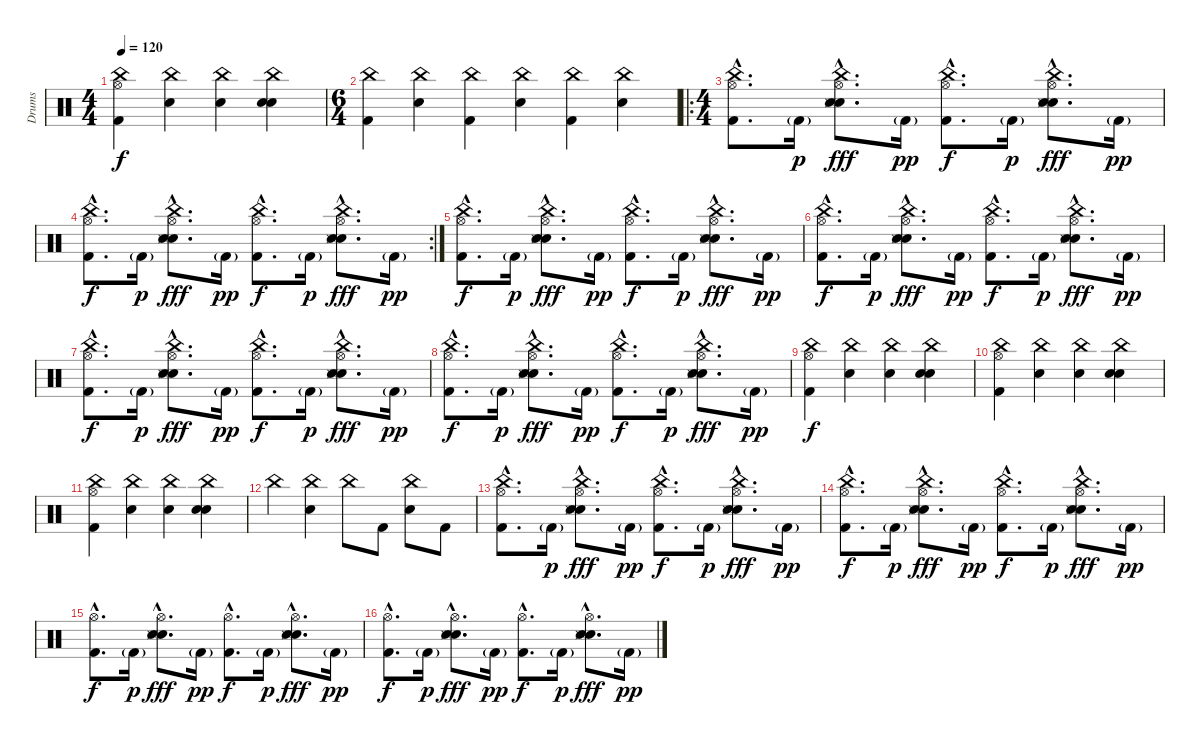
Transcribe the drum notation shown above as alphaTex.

\track ("Drums" "Drums") {instrument percussion}
\staff {score}
\articulation defaults
\ts (4 4)
\tempo 120
\clef neutral
\ks c
("China (hit)" "Kick (hit) 2" "Hi-Hat (open)").4{dy f} ("China (hit)" "Electric Snare (hit)").4 ("China (hit)" "Electric Snare (hit)").4 ("China (hit)" "Electric Snare (hit)" "Hand Clap (hit)").4 |
\ts (6 4)
("China (hit)" "Kick (hit) 2").4 ("China (hit)" "Electric Snare (hit)").4 ("China (hit)" "Kick (hit) 2").4 ("China (hit)" "Electric Snare (hit)").4 ("China (hit)" "Kick (hit) 2").4 ("China (hit)" "Electric Snare (hit)").4 |
\ro
\ts (4 4)
("Kick (hit) 2"{hac} "Hi-Hat (open)"{hac} "China (hit)"{hac}).8{d} "Kick (hit) 2"{g}.16{dy p} ("Hand Clap (hit)"{hac} "Electric Snare (hit)"{hac} "Hi-Hat (open)"{hac} "Snare (side stick) 3"{hac} "China (hit)"{hac}).8{d dy fff} "Kick (hit) 2"{g}.16{dy pp} ("Kick (hit) 2"{hac} "Hi-Hat (open)"{hac} "China (hit)"{hac}).8{d dy f} "Kick (hit) 2"{g}.16{dy p} ("Hand Clap (hit)"{hac} "Electric Snare (hit)"{hac} "Hi-Hat (open)"{hac} "Snare (side stick) 3"{hac} "China (hit)"{hac}).8{d dy fff} "Kick (hit) 2"{g}.16{dy pp} |
\rc 2
("Kick (hit) 2"{hac} "Hi-Hat (open)"{hac} "China (hit)"{hac}).8{d dy f} "Kick (hit) 2"{g}.16{dy p} ("Hand Clap (hit)"{hac} "Electric Snare (hit)"{hac} "Hi-Hat (open)"{hac} "Snare (side stick) 3"{hac} "China (hit)"{hac}).8{d dy fff} "Kick (hit) 2"{g}.16{dy pp} ("Kick (hit) 2"{hac} "Hi-Hat (open)"{hac} "China (hit)"{hac}).8{d dy f} "Kick (hit) 2"{g}.16{dy p} ("Hand Clap (hit)"{hac} "Electric Snare (hit)"{hac} "Hi-Hat (open)"{hac} "Snare (side stick) 3"{hac} "China (hit)"{hac}).8{d dy fff} "Kick (hit) 2"{g}.16{dy pp} |
("Kick (hit) 2"{hac} "Hi-Hat (open)"{hac} "China (hit)"{hac}).8{d dy f} "Kick (hit) 2"{g}.16{dy p} ("Hand Clap (hit)"{hac} "Electric Snare (hit)"{hac} "Hi-Hat (open)"{hac} "Snare (side stick) 3"{hac} "China (hit)"{hac}).8{d dy fff} "Kick (hit) 2"{g}.16{dy pp} ("Kick (hit) 2"{hac} "Hi-Hat (open)"{hac} "China (hit)"{hac}).8{d dy f} "Kick (hit) 2"{g}.16{dy p} ("Hand Clap (hit)"{hac} "Electric Snare (hit)"{hac} "Hi-Hat (open)"{hac} "Snare (side stick) 3"{hac} "China (hit)"{hac}).8{d dy fff} "Kick (hit) 2"{g}.16{dy pp} |
("Kick (hit) 2"{hac} "Hi-Hat (open)"{hac} "China (hit)"{hac}).8{d dy f} "Kick (hit) 2"{g}.16{dy p} ("Hand Clap (hit)"{hac} "Electric Snare (hit)"{hac} "Hi-Hat (open)"{hac} "Snare (side stick) 3"{hac} "China (hit)"{hac}).8{d dy fff} "Kick (hit) 2"{g}.16{dy pp} ("Kick (hit) 2"{hac} "Hi-Hat (open)"{hac} "China (hit)"{hac}).8{d dy f} "Kick (hit) 2"{g}.16{dy p} ("Hand Clap (hit)"{hac} "Electric Snare (hit)"{hac} "Hi-Hat (open)"{hac} "Snare (side stick) 3"{hac} "China (hit)"{hac}).8{d dy fff} "Kick (hit) 2"{g}.16{dy pp} |
("Kick (hit) 2"{hac} "Hi-Hat (open)"{hac} "China (hit)"{hac}).8{d dy f} "Kick (hit) 2"{g}.16{dy p} ("Hand Clap (hit)"{hac} "Electric Snare (hit)"{hac} "Hi-Hat (open)"{hac} "Snare (side stick) 3"{hac} "China (hit)"{hac}).8{d dy fff} "Kick (hit) 2"{g}.16{dy pp} ("Kick (hit) 2"{hac} "Hi-Hat (open)"{hac} "China (hit)"{hac}).8{d dy f} "Kick (hit) 2"{g}.16{dy p} ("Hand Clap (hit)"{hac} "Electric Snare (hit)"{hac} "Hi-Hat (open)"{hac} "Snare (side stick) 3"{hac} "China (hit)"{hac}).8{d dy fff} "Kick (hit) 2"{g}.16{dy pp} |
("Kick (hit) 2"{hac} "Hi-Hat (open)"{hac} "China (hit)"{hac}).8{d dy f} "Kick (hit) 2"{g}.16{dy p} ("Hand Clap (hit)"{hac} "Electric Snare (hit)"{hac} "Hi-Hat (open)"{hac} "Snare (side stick) 3"{hac} "China (hit)"{hac}).8{d dy fff} "Kick (hit) 2"{g}.16{dy pp} ("Kick (hit) 2"{hac} "Hi-Hat (open)"{hac} "China (hit)"{hac}).8{d dy f} "Kick (hit) 2"{g}.16{dy p} ("Hand Clap (hit)"{hac} "Electric Snare (hit)"{hac} "Hi-Hat (open)"{hac} "Snare (side stick) 3"{hac} "China (hit)"{hac}).8{d dy fff} "Kick (hit) 2"{g}.16{dy pp} |
("China (hit)" "Kick (hit) 2" "Hi-Hat (open)").4{dy f} ("China (hit)" "Electric Snare (hit)").4 ("China (hit)" "Electric Snare (hit)").4 ("China (hit)" "Electric Snare (hit)" "Hand Clap (hit)").4 |
("China (hit)" "Kick (hit) 2" "Hi-Hat (open)").4 ("China (hit)" "Electric Snare (hit)").4 ("China (hit)" "Electric Snare (hit)").4 ("China (hit)" "Electric Snare (hit)" "Hand Clap (hit)").4 |
("China (hit)" "Kick (hit) 2" "Hi-Hat (open)").4 ("China (hit)" "Electric Snare (hit)").4 ("China (hit)" "Electric Snare (hit)").4 ("China (hit)" "Electric Snare (hit)" "Hand Clap (hit)").4 |
"China (hit)".4 ("China (hit)" "Electric Snare (hit)").4 "China (hit)".8 "Kick (hit) 2".8 ("China (hit)" "Electric Snare (hit)").8 "Kick (hit) 2".8 |
("Kick (hit) 2"{hac} "Hi-Hat (open)"{hac} "China (hit)"{hac}).8{d} "Kick (hit) 2"{g}.16{dy p} ("Hand Clap (hit)"{hac} "Electric Snare (hit)"{hac} "Hi-Hat (open)"{hac} "Snare (side stick) 3"{hac} "China (hit)"{hac}).8{d dy fff} "Kick (hit) 2"{g}.16{dy pp} ("Kick (hit) 2"{hac} "Hi-Hat (open)"{hac} "China (hit)"{hac}).8{d dy f} "Kick (hit) 2"{g}.16{dy p} ("Hand Clap (hit)"{hac} "Electric Snare (hit)"{hac} "Hi-Hat (open)"{hac} "Snare (side stick) 3"{hac} "China (hit)"{hac}).8{d dy fff} "Kick (hit) 2"{g}.16{dy pp} |
("Kick (hit) 2"{hac} "Hi-Hat (open)"{hac} "China (hit)"{hac}).8{d dy f} "Kick (hit) 2"{g}.16{dy p} ("Hand Clap (hit)"{hac} "Electric Snare (hit)"{hac} "Hi-Hat (open)"{hac} "Snare (side stick) 3"{hac} "China (hit)"{hac}).8{d dy fff} "Kick (hit) 2"{g}.16{dy pp} ("Kick (hit) 2"{hac} "Hi-Hat (open)"{hac} "China (hit)"{hac}).8{d dy f} "Kick (hit) 2"{g}.16{dy p} ("Hand Clap (hit)"{hac} "Electric Snare (hit)"{hac} "Hi-Hat (open)"{hac} "Snare (side stick) 3"{hac} "China (hit)"{hac}).8{d dy fff} "Kick (hit) 2"{g}.16{dy pp} |
("Kick (hit) 2"{hac} "Hi-Hat (open)"{hac}).8{d dy f} "Kick (hit) 2"{g}.16{dy p} ("Hand Clap (hit)"{hac} "Electric Snare (hit)"{hac} "Hi-Hat (open)"{hac} "Snare (side stick) 3"{hac}).8{d dy fff} "Kick (hit) 2"{g}.16{dy pp} ("Kick (hit) 2"{hac} "Hi-Hat (open)"{hac}).8{d dy f} "Kick (hit) 2"{g}.16{dy p} ("Hand Clap (hit)"{hac} "Electric Snare (hit)"{hac} "Hi-Hat (open)"{hac} "Snare (side stick) 3"{hac}).8{d dy fff} "Kick (hit) 2"{g}.16{dy pp} |
("Kick (hit) 2"{hac} "Hi-Hat (open)"{hac}).8{d dy f} "Kick (hit) 2"{g}.16{dy p} ("Hand Clap (hit)"{hac} "Electric Snare (hit)"{hac} "Hi-Hat (open)"{hac} "Snare (side stick) 3"{hac}).8{d dy fff} "Kick (hit) 2"{g}.16{dy pp} ("Kick (hit) 2"{hac} "Hi-Hat (open)"{hac}).8{d dy f} "Kick (hit) 2"{g}.16{dy p} ("Hand Clap (hit)"{hac} "Electric Snare (hit)"{hac} "Hi-Hat (open)"{hac} "Snare (side stick) 3"{hac}).8{d dy fff} "Kick (hit) 2"{g}.16{dy pp}
